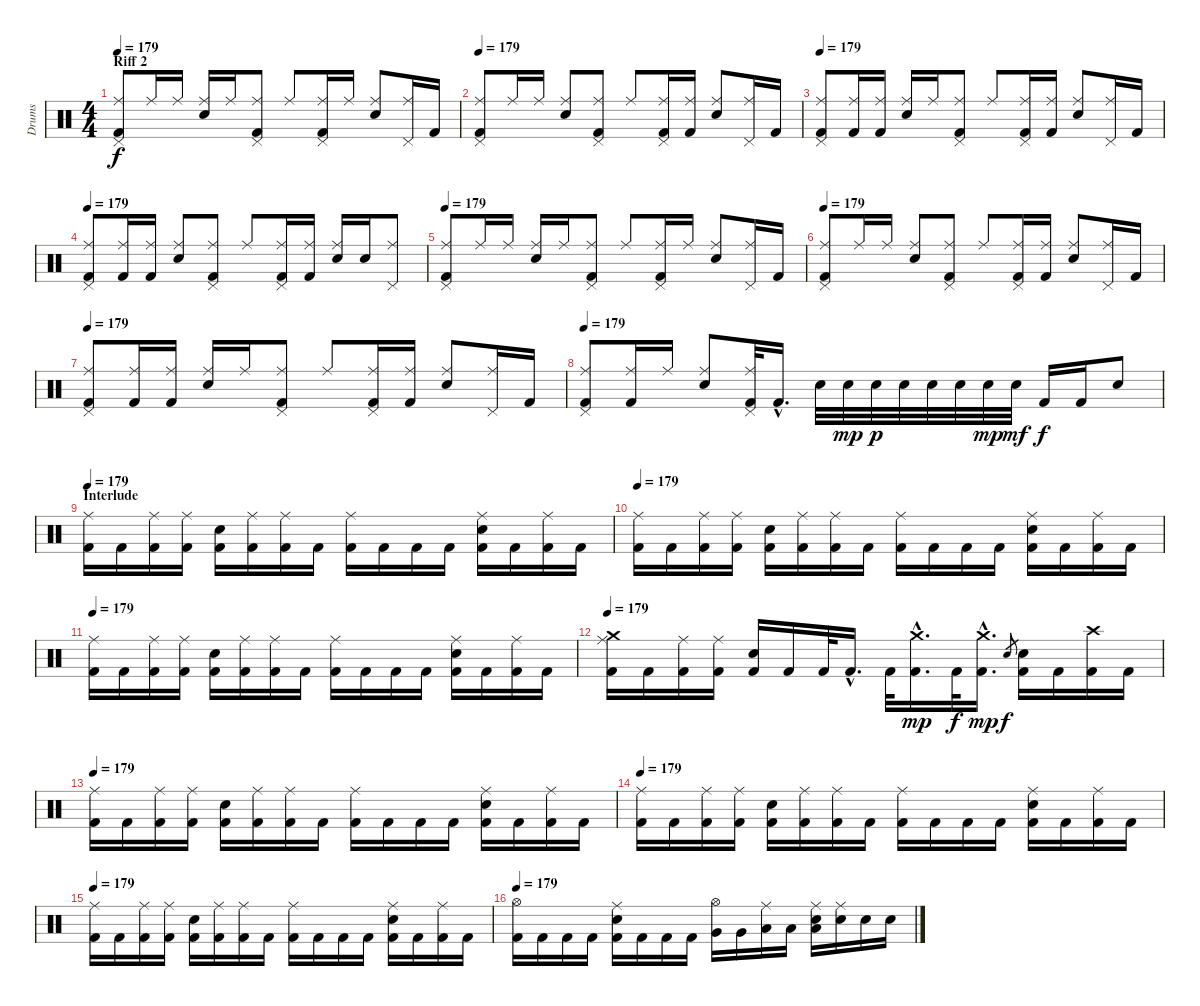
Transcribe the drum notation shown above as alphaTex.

\track ("Drums" "Drums") {instrument percussion}
\staff {score}
\articulation defaults
\ts (4 4)
\section ("" "Riff 2")
\tempo 179
\clef neutral
\ks c
("Pedal Hi-Hat (hit)" "Ride (middle)" "Kick (hit) 2").8{dy f} "Ride (middle)".16 "Ride (middle)".16 ("Ride (middle)" "Electric Snare (hit)").16 "Ride (middle)".16 ("Pedal Hi-Hat (hit)" "Ride (middle)" "Kick (hit) 2").8 "Ride (middle)".8 ("Pedal Hi-Hat (hit)" "Ride (middle)" "Kick (hit) 2").16 "Ride (middle)".16 ("Ride (middle)" "Electric Snare (hit)").8 ("Pedal Hi-Hat (hit)" "Ride (middle)").16 "Kick (hit) 2".16 |
\tempo 179
("Pedal Hi-Hat (hit)" "Ride (middle)" "Kick (hit) 2").8 "Ride (middle)".16 "Ride (middle)".16 ("Ride (middle)" "Electric Snare (hit)").8 ("Pedal Hi-Hat (hit)" "Ride (middle)" "Kick (hit) 2").8 "Ride (middle)".8 ("Pedal Hi-Hat (hit)" "Ride (middle)" "Kick (hit) 2").16 ("Ride (middle)" "Kick (hit) 2").16 ("Ride (middle)" "Electric Snare (hit)").8 ("Pedal Hi-Hat (hit)" "Ride (middle)").16 "Kick (hit) 2".16 |
\tempo 179
("Pedal Hi-Hat (hit)" "Ride (middle)" "Kick (hit) 2").8 ("Ride (middle)" "Kick (hit) 2").16 ("Ride (middle)" "Kick (hit) 2").16 ("Ride (middle)" "Electric Snare (hit)").16 "Ride (middle)".16 ("Pedal Hi-Hat (hit)" "Ride (middle)" "Kick (hit) 2").8 "Ride (middle)".8 ("Pedal Hi-Hat (hit)" "Ride (middle)" "Kick (hit) 2").16 ("Ride (middle)" "Kick (hit) 2").16 ("Ride (middle)" "Electric Snare (hit)").8 ("Pedal Hi-Hat (hit)" "Ride (middle)").16 "Kick (hit) 2".16 |
\tempo 179
("Pedal Hi-Hat (hit)" "Ride (middle)" "Kick (hit) 2").8 ("Ride (middle)" "Kick (hit) 2").16 ("Ride (middle)" "Kick (hit) 2").16 ("Ride (middle)" "Electric Snare (hit)").8 ("Pedal Hi-Hat (hit)" "Ride (middle)" "Kick (hit) 2").8 "Ride (middle)".8 ("Pedal Hi-Hat (hit)" "Ride (middle)" "Kick (hit) 2").16 ("Ride (middle)" "Kick (hit) 2").16 ("Ride (middle)" "Electric Snare (hit)").16 "Electric Snare (hit)".16 ("Pedal Hi-Hat (hit)" "Ride (middle)").8 |
\tempo 179
("Pedal Hi-Hat (hit)" "Ride (middle)" "Kick (hit) 2").8 "Ride (middle)".16 "Ride (middle)".16 ("Ride (middle)" "Electric Snare (hit)").16 "Ride (middle)".16 ("Pedal Hi-Hat (hit)" "Ride (middle)" "Kick (hit) 2").8 "Ride (middle)".8 ("Pedal Hi-Hat (hit)" "Ride (middle)" "Kick (hit) 2").16 "Ride (middle)".16 ("Ride (middle)" "Electric Snare (hit)").8 ("Pedal Hi-Hat (hit)" "Ride (middle)").16 "Kick (hit) 2".16 |
\tempo 179
("Pedal Hi-Hat (hit)" "Ride (middle)" "Kick (hit) 2").8 "Ride (middle)".16 "Ride (middle)".16 ("Ride (middle)" "Electric Snare (hit)").8 ("Pedal Hi-Hat (hit)" "Ride (middle)" "Kick (hit) 2").8 "Ride (middle)".8 ("Pedal Hi-Hat (hit)" "Ride (middle)" "Kick (hit) 2").16 ("Ride (middle)" "Kick (hit) 2").16 ("Ride (middle)" "Electric Snare (hit)").8 ("Pedal Hi-Hat (hit)" "Ride (middle)").16 "Kick (hit) 2".16 |
\tempo 179
("Pedal Hi-Hat (hit)" "Ride (middle)" "Kick (hit) 2").8 ("Ride (middle)" "Kick (hit) 2").16 ("Ride (middle)" "Kick (hit) 2").16 ("Ride (middle)" "Electric Snare (hit)").16 "Ride (middle)".16 ("Pedal Hi-Hat (hit)" "Ride (middle)" "Kick (hit) 2").8 "Ride (middle)".8 ("Pedal Hi-Hat (hit)" "Ride (middle)" "Kick (hit) 2").16 ("Ride (middle)" "Kick (hit) 2").16 ("Ride (middle)" "Electric Snare (hit)").8 ("Pedal Hi-Hat (hit)" "Ride (middle)").16 "Kick (hit) 2".16 |
\tempo 179
("Pedal Hi-Hat (hit)" "Ride (middle)" "Kick (hit) 2").8 ("Ride (middle)" "Kick (hit) 2").16 "Ride (middle)".16 ("Ride (middle)" "Electric Snare (hit)").8 ("Pedal Hi-Hat (hit)" "Ride (middle)" "Kick (hit) 2").32 "Kick (hit) 2"{hac}.16{d} "Electric Snare (hit)".32 "Electric Snare (hit)".32{dy mp} "Electric Snare (hit)".32{dy p} "Electric Snare (hit)".32 "Electric Snare (hit)".32 "Electric Snare (hit)".32 "Electric Snare (hit)".32{dy mp} "Electric Snare (hit)".32{dy mf} "Kick (hit) 2".16{dy f} "Kick (hit) 2".16 "Electric Snare (hit)".8 |
\section ("" "Interlude")
\tempo 179
("Ride (middle)" "Kick (hit) 2").16 "Kick (hit) 2".16 ("Ride (middle)" "Kick (hit) 2").16 ("Ride (middle)" "Kick (hit) 2").16 ("Electric Snare (hit)" "Kick (hit) 2").16 ("Ride (middle)" "Kick (hit) 2").16 ("Ride (middle)" "Kick (hit) 2").16 "Kick (hit) 2".16 ("Ride (middle)" "Kick (hit) 2").16 "Kick (hit) 2".16 "Kick (hit) 2".16 "Kick (hit) 2".16 ("Electric Snare (hit)" "Ride (middle)" "Kick (hit) 2").16 "Kick (hit) 2".16 ("Ride (middle)" "Kick (hit) 2").16 "Kick (hit) 2".16 |
\tempo 179
("Ride (middle)" "Kick (hit) 2").16 "Kick (hit) 2".16 ("Ride (middle)" "Kick (hit) 2").16 ("Ride (middle)" "Kick (hit) 2").16 ("Electric Snare (hit)" "Kick (hit) 2").16 ("Ride (middle)" "Kick (hit) 2").16 ("Ride (middle)" "Kick (hit) 2").16 "Kick (hit) 2".16 ("Ride (middle)" "Kick (hit) 2").16 "Kick (hit) 2".16 "Kick (hit) 2".16 "Kick (hit) 2".16 ("Electric Snare (hit)" "Ride (middle)" "Kick (hit) 2").16 "Kick (hit) 2".16 ("Ride (middle)" "Kick (hit) 2").16 "Kick (hit) 2".16 |
\tempo 179
("Ride (middle)" "Kick (hit) 2").16 "Kick (hit) 2".16 ("Ride (middle)" "Kick (hit) 2").16 ("Ride (middle)" "Kick (hit) 2").16 ("Electric Snare (hit)" "Kick (hit) 2").16 ("Ride (middle)" "Kick (hit) 2").16 ("Ride (middle)" "Kick (hit) 2").16 "Kick (hit) 2".16 ("Ride (middle)" "Kick (hit) 2").16 "Kick (hit) 2".16 "Kick (hit) 2".16 "Kick (hit) 2".16 ("Electric Snare (hit)" "Ride (middle)" "Kick (hit) 2").16 "Kick (hit) 2".16 ("Ride (middle)" "Kick (hit) 2").16 "Kick (hit) 2".16 |
\tempo 179
("Crash medium (hit)" "Ride (middle)" "Kick (hit) 2").16 "Kick (hit) 2".16 ("Ride (middle)" "Kick (hit) 2").16 ("Ride (middle)" "Kick (hit) 2").16 ("Electric Snare (hit)" "Kick (hit) 2").16 "Kick (hit) 2".16 "Kick (hit) 2".32 "Kick (hit) 2"{hac}.16{d} "Kick (hit) 2".32 ("Crash medium (hit)"{hac} "Kick (hit) 2"{hac}).16{d dy mp} "Kick (hit) 2".32{dy f} ("Crash medium (hit)"{hac} "Kick (hit) 2"{hac}).16{d dy mp} "Electric Snare (hit)".8{gr dy f} ("Electric Snare (hit)" "Kick (hit) 2").16 "Kick (hit) 2".16 ("Crash high (hit)" "Kick (hit) 2").16 "Kick (hit) 2".16 |
\tempo 179
("Ride (middle)" "Kick (hit) 2").16 "Kick (hit) 2".16 ("Ride (middle)" "Kick (hit) 2").16 ("Ride (middle)" "Kick (hit) 2").16 ("Electric Snare (hit)" "Kick (hit) 2").16 ("Ride (middle)" "Kick (hit) 2").16 ("Ride (middle)" "Kick (hit) 2").16 "Kick (hit) 2".16 ("Ride (middle)" "Kick (hit) 2").16 "Kick (hit) 2".16 "Kick (hit) 2".16 "Kick (hit) 2".16 ("Electric Snare (hit)" "Ride (middle)" "Kick (hit) 2").16 "Kick (hit) 2".16 ("Ride (middle)" "Kick (hit) 2").16 "Kick (hit) 2".16 |
\tempo 179
("Ride (middle)" "Kick (hit) 2").16 "Kick (hit) 2".16 ("Ride (middle)" "Kick (hit) 2").16 ("Ride (middle)" "Kick (hit) 2").16 ("Electric Snare (hit)" "Kick (hit) 2").16 ("Ride (middle)" "Kick (hit) 2").16 ("Ride (middle)" "Kick (hit) 2").16 "Kick (hit) 2".16 ("Ride (middle)" "Kick (hit) 2").16 "Kick (hit) 2".16 "Kick (hit) 2".16 "Kick (hit) 2".16 ("Electric Snare (hit)" "Ride (middle)" "Kick (hit) 2").16 "Kick (hit) 2".16 ("Ride (middle)" "Kick (hit) 2").16 "Kick (hit) 2".16 |
\tempo 179
("Ride (middle)" "Kick (hit) 2").16 "Kick (hit) 2".16 ("Ride (middle)" "Kick (hit) 2").16 ("Ride (middle)" "Kick (hit) 2").16 ("Electric Snare (hit)" "Kick (hit) 2").16 ("Ride (middle)" "Kick (hit) 2").16 ("Ride (middle)" "Kick (hit) 2").16 "Kick (hit) 2".16 ("Ride (middle)" "Kick (hit) 2").16 "Kick (hit) 2".16 "Kick (hit) 2".16 "Kick (hit) 2".16 ("Electric Snare (hit)" "Ride (middle)" "Kick (hit) 2").16 "Kick (hit) 2".16 ("Ride (middle)" "Kick (hit) 2").16 "Kick (hit) 2".16 |
\tempo 179
("Hi-Hat (open)" "Kick (hit) 2").16 "Kick (hit) 2".16 "Kick (hit) 2".16 "Kick (hit) 2".16 ("Electric Snare (hit)" "Ride (middle)" "Kick (hit) 2").16 "Kick (hit) 2".16 "Kick (hit) 2".16 "Kick (hit) 2".16 ("Hi-Hat (open)" "Very Low Tom (hit)").16 "Very Low Tom (hit)".16 ("Ride (middle)" "Low Floor Tom (hit)").16 "Low Floor Tom (hit)".16 ("Electric Snare (hit)" "Ride (middle)" "Low Floor Tom (hit)").16 ("Ride (middle)" "Electric Snare (hit)").16 "Electric Snare (hit)".16 "Electric Snare (hit)".16
